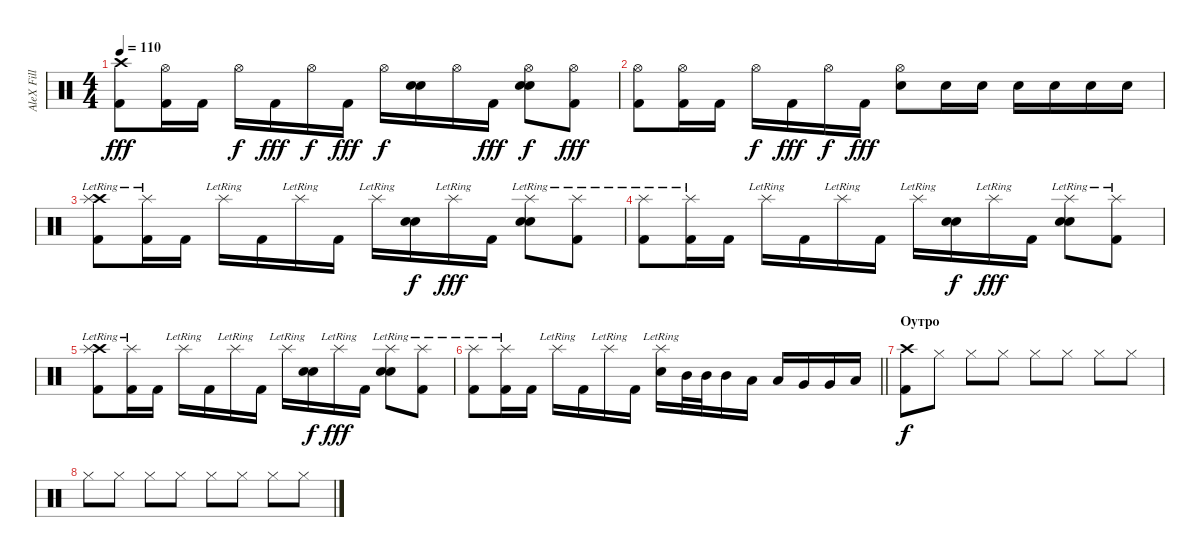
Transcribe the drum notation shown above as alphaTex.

\track ("AleX Fill" "AleX Fill") {instrument percussion}
\staff {score}
\articulation defaults
\ts (4 4)
\tempo 110
\clef neutral
\ks c
("Crash high (hit)" "Kick (hit) 2").8{dy fff} ("Hi-Hat (open)" "Kick (hit) 2").16 "Kick (hit) 2".16 "Hi-Hat (open)".16{dy f} "Kick (hit) 2".16{dy fff} "Hi-Hat (open)".16{dy f} "Kick (hit) 2".16{dy fff} "Hi-Hat (open)".16{dy f} ("Electric Snare (hit)" "Electric Snare (hit)").16 "Hi-Hat (open)".16 "Kick (hit) 2".16{dy fff} ("Hi-Hat (open)" "Electric Snare (hit)" "Electric Snare (hit)").8{dy f} ("Hi-Hat (open)" "Kick (hit) 2").8{dy fff} |
("Hi-Hat (open)" "Kick (hit) 2").8 ("Hi-Hat (open)" "Kick (hit) 2").16 "Kick (hit) 2".16 "Hi-Hat (open)".16{dy f} "Kick (hit) 2".16{dy fff} "Hi-Hat (open)".16{dy f} "Kick (hit) 2".16{dy fff} ("Hi-Hat (open)" "Electric Snare (hit)").8 "Electric Snare (hit)".16 "Electric Snare (hit)".16 "Electric Snare (hit)".16 "Electric Snare (hit)".16 "Electric Snare (hit)".16 "Electric Snare (hit)".16 |
("Crash high (hit)" "Splash (hit)"{lr} "Kick (hit) 2").8 ("Splash (hit)"{lr} "Kick (hit) 2").16 "Kick (hit) 2".16 "Splash (hit)"{lr}.16 "Kick (hit) 2".16 "Splash (hit)"{lr}.16 "Kick (hit) 2".16 "Splash (hit)"{lr}.16 ("Electric Snare (hit)" "Electric Snare (hit)").16{dy f} "Splash (hit)"{lr}.16{dy fff} "Kick (hit) 2".16 ("Splash (hit)"{lr} "Electric Snare (hit)" "Electric Snare (hit)").8 ("Splash (hit)"{lr} "Kick (hit) 2").8 |
("Splash (hit)"{lr} "Kick (hit) 2").8 ("Splash (hit)"{lr} "Kick (hit) 2").16 "Kick (hit) 2".16 "Splash (hit)"{lr}.16 "Kick (hit) 2".16 "Splash (hit)"{lr}.16 "Kick (hit) 2".16 "Splash (hit)"{lr}.16 ("Electric Snare (hit)" "Electric Snare (hit)").16{dy f} "Splash (hit)"{lr}.16{dy fff} "Kick (hit) 2".16 ("Splash (hit)"{lr} "Electric Snare (hit)" "Electric Snare (hit)").8 ("Splash (hit)"{lr} "Kick (hit) 2").8 |
("Crash high (hit)" "Splash (hit)"{lr} "Kick (hit) 2").8 ("Splash (hit)"{lr} "Kick (hit) 2").16 "Kick (hit) 2".16 "Splash (hit)"{lr}.16 "Kick (hit) 2".16 "Splash (hit)"{lr}.16 "Kick (hit) 2".16 "Splash (hit)"{lr}.16 ("Electric Snare (hit)" "Electric Snare (hit)").16{dy f} "Splash (hit)"{lr}.16{dy fff} "Kick (hit) 2".16 ("Splash (hit)"{lr} "Electric Snare (hit)" "Electric Snare (hit)").8 ("Splash (hit)"{lr} "Kick (hit) 2").8 |
\barLineRight lightlight
("Splash (hit)"{lr} "Kick (hit) 2").8 ("Splash (hit)"{lr} "Kick (hit) 2").16 "Kick (hit) 2".16 "Splash (hit)"{lr}.16 "Kick (hit) 2".16 "Splash (hit)"{lr}.16 "Kick (hit) 2".16 ("Splash (hit)"{lr} "Electric Snare (hit)").16 "Mid Tom (hit)".32 "Mid Tom (hit)".32 "Mid Tom (hit)".16 "Low Tom (hit)".16 "Low Tom (hit)".16 "Very Low Tom (hit)".16 "Very Low Tom (hit)".16 "Low Floor Tom (hit)".16 |
\section ("" "Оутро")
("Crash high (hit)" "Kick (hit) 2").8{dy f} "Hi-Hat (closed)".8 "Hi-Hat (closed)".8 "Hi-Hat (closed)".8 "Hi-Hat (closed)".8 "Hi-Hat (closed)".8 "Hi-Hat (closed)".8 "Hi-Hat (closed)".8 |
"Hi-Hat (closed)".8 "Hi-Hat (closed)".8 "Hi-Hat (closed)".8 "Hi-Hat (closed)".8 "Hi-Hat (closed)".8 "Hi-Hat (closed)".8 "Hi-Hat (closed)".8 "Hi-Hat (closed)".8
